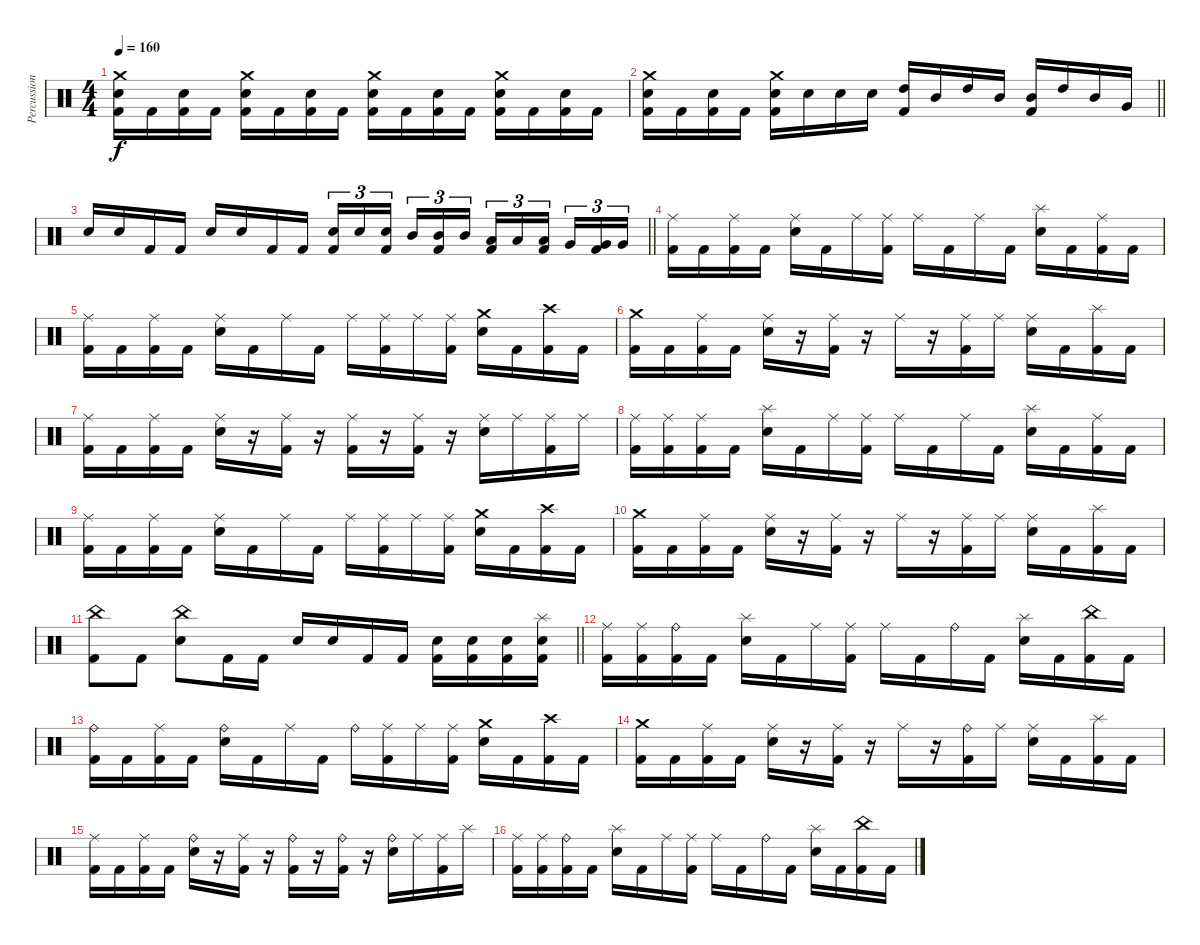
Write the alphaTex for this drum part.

\track ("Percussion" "Percussion") {instrument percussion}
\staff {score}
\articulation defaults
\ts (4 4)
\tempo 160
\clef neutral
\ks c
("Crash medium (hit)" "Snare (hit) 2" "Kick (hit) 2").16{dy f} "Kick (hit) 2".16 ("Snare (hit) 2" "Kick (hit) 2").16 "Kick (hit) 2".16 ("Crash medium (hit)" "Snare (hit) 2" "Kick (hit) 2").16 "Kick (hit) 2".16 ("Snare (hit) 2" "Kick (hit) 2").16 "Kick (hit) 2".16 ("Crash medium (hit)" "Snare (hit) 2" "Kick (hit) 2").16 "Kick (hit) 2".16 ("Snare (hit) 2" "Kick (hit) 2").16 "Kick (hit) 2".16 ("Crash medium (hit)" "Snare (hit) 2" "Kick (hit) 2").16 "Kick (hit) 2".16 ("Snare (hit) 2" "Kick (hit) 2").16 "Kick (hit) 2".16 |
\barLineRight lightlight
("Crash medium (hit)" "Snare (hit) 2" "Kick (hit) 2").16 "Kick (hit) 2".16 ("Snare (hit) 2" "Kick (hit) 2").16 "Kick (hit) 2".16 ("Crash medium (hit)" "Snare (hit) 2" "Kick (hit) 2").16 "Snare (hit) 2".16 "Snare (hit) 2".16 "Snare (hit) 2".16 ("High Tom (hit)" "Kick (hit) 2").16 "Mid Tom (hit)".16 "High Tom (hit)".16 "Mid Tom (hit)".16 ("Mid Tom (hit)" "Kick (hit) 2").16 "High Tom (hit)".16 "Mid Tom (hit)".16 "Very Low Tom (hit)".16 |
\barLineRight lightlight "Snare (hit) 2".16 "Snare (hit) 2".16 "Kick (hit) 2".16 "Kick (hit) 2".16 "Snare (hit) 2".16 "Snare (hit) 2".16 "Kick (hit) 2".16 "Kick (hit) 2".16
("Snare (hit) 2" "Kick (hit) 2").16{tu (3 2)} "Snare (hit) 2".16{tu (3 2)} ("Snare (hit) 2" "Kick (hit) 2").16{tu (3 2) beam splitsecondary} "Mid Tom (hit)".16{tu (3 2)} ("Mid Tom (hit)" "Kick (hit) 2").16{tu (3 2)} "Mid Tom (hit)".16{tu (3 2)} ("Low Tom (hit)" "Kick (hit) 2").16{tu (3 2)} "Low Tom (hit)".16{tu (3 2)} ("Low Tom (hit)" "Kick (hit) 2").16{tu (3 2) beam splitsecondary} "Very Low Tom (hit)".16{tu (3 2)} ("Very Low Tom (hit)" "Kick (hit) 2").16{tu (3 2)} "Very Low Tom (hit)".16{tu (3 2)} |
("Ride (middle)" "Kick (hit) 2").16 "Kick (hit) 2".16 ("Ride (middle)" "Kick (hit) 2").16 "Kick (hit) 2".16 ("Ride (middle)" "Snare (hit) 2").16 "Kick (hit) 2".16 "Ride (middle)".16 ("Ride (middle)" "Kick (hit) 2").16 "Ride (middle)".16 "Kick (hit) 2".16 "Ride (middle)".16 "Kick (hit) 2".16 ("Splash (hit)" "Snare (hit) 2").16 "Kick (hit) 2".16 ("Ride (middle)" "Kick (hit) 2").16 "Kick (hit) 2".16 |
("Ride (middle)" "Kick (hit) 2").16 "Kick (hit) 2".16 ("Ride (middle)" "Kick (hit) 2").16 "Kick (hit) 2".16 ("Ride (middle)" "Snare (hit) 2").16 "Kick (hit) 2".16 "Ride (middle)".16 "Kick (hit) 2".16 "Ride (middle)".16 ("Ride (middle)" "Kick (hit) 2").16 "Ride (middle)".16 ("Ride (middle)" "Kick (hit) 2").16 ("Crash medium (hit)" "Snare (hit) 2").16 "Kick (hit) 2".16 ("Crash high (hit)" "Kick (hit) 2").16 "Kick (hit) 2".16 |
("Crash medium (hit)" "Kick (hit) 2").16 "Kick (hit) 2".16 ("Ride (middle)" "Kick (hit) 2").16 "Kick (hit) 2".16 ("Ride (middle)" "Snare (hit) 2").16 r.16 ("Ride (middle)" "Kick (hit) 2").16 r.16 "Ride (middle)".16 r.16 ("Ride (middle)" "Kick (hit) 2").16 "Ride (middle)".16 ("Ride (middle)" "Snare (hit) 2").16 "Kick (hit) 2".16 ("Splash (hit)" "Kick (hit) 2").16 "Kick (hit) 2".16 |
("Ride (middle)" "Kick (hit) 2").16 "Kick (hit) 2".16 ("Ride (middle)" "Kick (hit) 2").16 "Kick (hit) 2".16 ("Ride (middle)" "Snare (hit) 2").16 r.16 ("Ride (middle)" "Kick (hit) 2").16 r.16 ("Ride (middle)" "Kick (hit) 2").16 r.16 ("Ride (middle)" "Kick (hit) 2").16 r.16 ("Ride (middle)" "Snare (hit) 2").16 "Ride (middle)".16 ("Ride (middle)" "Kick (hit) 2").16 "Ride (middle)".16 |
("Ride (middle)" "Kick (hit) 2").16 ("Ride (middle)" "Kick (hit) 2").16 ("Ride (middle)" "Kick (hit) 2").16 "Kick (hit) 2".16 ("Splash (hit)" "Snare (hit) 2").16 "Kick (hit) 2".16 "Ride (middle)".16 ("Ride (middle)" "Kick (hit) 2").16 "Ride (middle)".16 "Kick (hit) 2".16 "Ride (middle)".16 "Kick (hit) 2".16 ("Splash (hit)" "Snare (hit) 2").16 "Kick (hit) 2".16 ("Ride (middle)" "Kick (hit) 2").16 "Kick (hit) 2".16 |
("Ride (middle)" "Kick (hit) 2").16 "Kick (hit) 2".16 ("Ride (middle)" "Kick (hit) 2").16 "Kick (hit) 2".16 ("Ride (middle)" "Snare (hit) 2").16 "Kick (hit) 2".16 "Ride (middle)".16 "Kick (hit) 2".16 "Ride (middle)".16 ("Ride (middle)" "Kick (hit) 2").16 "Ride (middle)".16 ("Ride (middle)" "Kick (hit) 2").16 ("Crash medium (hit)" "Snare (hit) 2").16 "Kick (hit) 2".16 ("Crash high (hit)" "Kick (hit) 2").16 "Kick (hit) 2".16 |
("Crash medium (hit)" "Kick (hit) 2").16 "Kick (hit) 2".16 ("Ride (middle)" "Kick (hit) 2").16 "Kick (hit) 2".16 ("Ride (middle)" "Snare (hit) 2").16 r.16 ("Ride (middle)" "Kick (hit) 2").16 r.16 "Ride (middle)".16 r.16 ("Ride (middle)" "Kick (hit) 2").16 "Ride (middle)".16 ("Ride (middle)" "Snare (hit) 2").16 "Kick (hit) 2".16 ("Splash (hit)" "Kick (hit) 2").16 "Kick (hit) 2".16 |
\barLineRight lightlight
("China (hit)" "Kick (hit) 2").8 "Kick (hit) 2".8 ("China (hit)" "Snare (hit) 2").8 "Kick (hit) 2".16 "Kick (hit) 2".16 "Snare (hit) 2".16 "Snare (hit) 2".16 "Kick (hit) 2".16 "Kick (hit) 2".16 ("Snare (hit) 2" "Kick (hit) 2").16 ("Snare (hit) 2" "Kick (hit) 2").16 ("Snare (hit) 2" "Kick (hit) 2").16 ("Splash (hit)" "Snare (hit) 2" "Kick (hit) 2").16 |
("Ride (middle)" "Kick (hit) 2").16 ("Ride (middle)" "Kick (hit) 2").16 ("Ride (bell)" "Kick (hit) 2").16 "Kick (hit) 2".16 ("Splash (hit)" "Snare (hit) 2").16 "Kick (hit) 2".16 "Ride (middle)".16 ("Ride (middle)" "Kick (hit) 2").16 "Ride (middle)".16 "Kick (hit) 2".16 "Ride (bell)".16 "Kick (hit) 2".16 ("Splash (hit)" "Snare (hit) 2").16 "Kick (hit) 2".16 ("China (hit)" "Kick (hit) 2").16 "Kick (hit) 2".16 |
("Ride (bell)" "Kick (hit) 2").16 "Kick (hit) 2".16 ("Ride (middle)" "Kick (hit) 2").16 "Kick (hit) 2".16 ("Ride (bell)" "Snare (hit) 2").16 "Kick (hit) 2".16 "Ride (middle)".16 "Kick (hit) 2".16 "Ride (bell)".16 ("Ride (middle)" "Kick (hit) 2").16 "Ride (middle)".16 ("Ride (middle)" "Kick (hit) 2").16 ("Crash medium (hit)" "Snare (hit) 2").16 "Kick (hit) 2".16 ("Crash high (hit)" "Kick (hit) 2").16 "Kick (hit) 2".16 |
("Crash medium (hit)" "Kick (hit) 2").16 "Kick (hit) 2".16 ("Ride (middle)" "Kick (hit) 2").16 "Kick (hit) 2".16 ("Ride (middle)" "Snare (hit) 2").16 r.16 ("Ride (middle)" "Kick (hit) 2").16 r.16 "Ride (middle)".16 r.16 ("Ride (bell)" "Kick (hit) 2").16 "Ride (middle)".16 ("Ride (middle)" "Snare (hit) 2").16 "Kick (hit) 2".16 ("Splash (hit)" "Kick (hit) 2").16 "Kick (hit) 2".16 |
("Ride (middle)" "Kick (hit) 2").16 "Kick (hit) 2".16 ("Ride (middle)" "Kick (hit) 2").16 "Kick (hit) 2".16 ("Ride (bell)" "Snare (hit) 2").16 r.16 ("Ride (middle)" "Kick (hit) 2").16 r.16 ("Ride (bell)" "Kick (hit) 2").16 r.16 ("Ride (bell)" "Kick (hit) 2").16 r.16 ("Ride (bell)" "Snare (hit) 2").16 "Ride (middle)".16 ("Ride (middle)" "Kick (hit) 2").16 "Splash (hit)".16 |
("Ride (middle)" "Kick (hit) 2").16 ("Ride (middle)" "Kick (hit) 2").16 ("Ride (bell)" "Kick (hit) 2").16 "Kick (hit) 2".16 ("Splash (hit)" "Snare (hit) 2").16 "Kick (hit) 2".16 "Ride (middle)".16 ("Ride (middle)" "Kick (hit) 2").16 "Ride (middle)".16 "Kick (hit) 2".16 "Ride (bell)".16 "Kick (hit) 2".16 ("Splash (hit)" "Snare (hit) 2").16 "Kick (hit) 2".16 ("China (hit)" "Kick (hit) 2").16 "Kick (hit) 2".16
